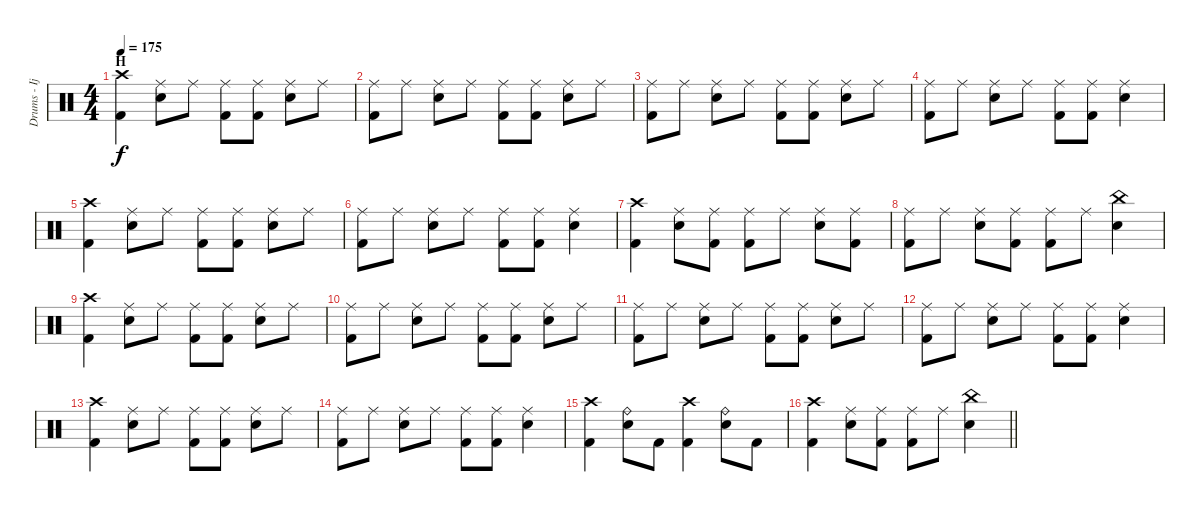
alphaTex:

\track ("Drums - Ijichi" "Drums - Ij") {instrument percussion}
\staff {score}
\articulation defaults
\ts (4 4)
\section ("" "H")
\tempo 175
\clef neutral
\ks c
("Crash high (hit)" "Kick (hit) 2").4{dy f} ("Ride (middle)" "Snare (hit) 2").8 "Ride (middle)".8 ("Ride (middle)" "Kick (hit) 2").8 ("Ride (middle)" "Kick (hit) 2").8 ("Ride (middle)" "Snare (hit) 2").8 "Ride (middle)".8 |
("Ride (middle)" "Kick (hit) 2").8 "Ride (middle)".8 ("Ride (middle)" "Snare (hit) 2").8 "Ride (middle)".8 ("Ride (middle)" "Kick (hit) 2").8 ("Ride (middle)" "Kick (hit) 2").8 ("Ride (middle)" "Snare (hit) 2").8 "Ride (middle)".8 |
("Ride (middle)" "Kick (hit) 2").8 "Ride (middle)".8 ("Ride (middle)" "Snare (hit) 2").8 "Ride (middle)".8 ("Ride (middle)" "Kick (hit) 2").8 ("Ride (middle)" "Kick (hit) 2").8 ("Ride (middle)" "Snare (hit) 2").8 "Ride (middle)".8 |
("Ride (middle)" "Kick (hit) 2").8 "Ride (middle)".8 ("Ride (middle)" "Snare (hit) 2").8 "Ride (middle)".8 ("Ride (middle)" "Kick (hit) 2").8 ("Ride (middle)" "Kick (hit) 2").8 ("Ride (middle)" "Snare (hit) 2").4 |
("Crash high (hit)" "Kick (hit) 2").4 ("Ride (middle)" "Snare (hit) 2").8 "Ride (middle)".8 ("Ride (middle)" "Kick (hit) 2").8 ("Ride (middle)" "Kick (hit) 2").8 ("Ride (middle)" "Snare (hit) 2").8 "Ride (middle)".8 |
("Ride (middle)" "Kick (hit) 2").8 "Ride (middle)".8 ("Ride (middle)" "Snare (hit) 2").8 "Ride (middle)".8 ("Ride (middle)" "Kick (hit) 2").8 ("Ride (middle)" "Kick (hit) 2").8 ("Ride (middle)" "Snare (hit) 2").4 |
("Crash high (hit)" "Kick (hit) 2").4 ("Ride (middle)" "Snare (hit) 2").8 ("Ride (middle)" "Kick (hit) 2").8 ("Ride (middle)" "Kick (hit) 2").8 "Ride (middle)".8 ("Ride (middle)" "Snare (hit) 2").8 ("Ride (middle)" "Kick (hit) 2").8 |
("Ride (middle)" "Kick (hit) 2").8 "Ride (middle)".8 ("Ride (middle)" "Snare (hit) 2").8 ("Ride (middle)" "Kick (hit) 2").8 ("Ride (middle)" "Kick (hit) 2").8 "Ride (middle)".8 ("China (hit)" "Snare (hit) 2").4 |
("Crash high (hit)" "Kick (hit) 2").4 ("Ride (middle)" "Snare (hit) 2").8 "Ride (middle)".8 ("Ride (middle)" "Kick (hit) 2").8 ("Ride (middle)" "Kick (hit) 2").8 ("Ride (middle)" "Snare (hit) 2").8 "Ride (middle)".8 |
("Ride (middle)" "Kick (hit) 2").8 "Ride (middle)".8 ("Ride (middle)" "Snare (hit) 2").8 "Ride (middle)".8 ("Ride (middle)" "Kick (hit) 2").8 ("Ride (middle)" "Kick (hit) 2").8 ("Ride (middle)" "Snare (hit) 2").8 "Ride (middle)".8 |
("Ride (middle)" "Kick (hit) 2").8 "Ride (middle)".8 ("Ride (middle)" "Snare (hit) 2").8 "Ride (middle)".8 ("Ride (middle)" "Kick (hit) 2").8 ("Ride (middle)" "Kick (hit) 2").8 ("Ride (middle)" "Snare (hit) 2").8 "Ride (middle)".8 |
("Ride (middle)" "Kick (hit) 2").8 "Ride (middle)".8 ("Ride (middle)" "Snare (hit) 2").8 "Ride (middle)".8 ("Ride (middle)" "Kick (hit) 2").8 ("Ride (middle)" "Kick (hit) 2").8 ("Ride (middle)" "Snare (hit) 2").4 |
("Crash high (hit)" "Kick (hit) 2").4 ("Ride (middle)" "Snare (hit) 2").8 "Ride (middle)".8 ("Ride (middle)" "Kick (hit) 2").8 ("Ride (middle)" "Kick (hit) 2").8 ("Ride (middle)" "Snare (hit) 2").8 "Ride (middle)".8 |
("Ride (middle)" "Kick (hit) 2").8 "Ride (middle)".8 ("Ride (middle)" "Snare (hit) 2").8 "Ride (middle)".8 ("Ride (middle)" "Kick (hit) 2").8 ("Ride (middle)" "Kick (hit) 2").8 ("Ride (middle)" "Snare (hit) 2").4 |
("Crash high (hit)" "Kick (hit) 2").4 ("Ride (bell)" "Snare (hit) 2").8 "Kick (hit) 2".8 ("Crash high (hit)" "Kick (hit) 2").4 ("Ride (bell)" "Snare (hit) 2").8 "Kick (hit) 2".8 |
\barLineRight lightlight
("Crash high (hit)" "Kick (hit) 2").4 ("Ride (middle)" "Snare (hit) 2").8 ("Ride (middle)" "Kick (hit) 2").8 ("Ride (middle)" "Kick (hit) 2").8 "Ride (middle)".8 ("China (hit)" "Snare (hit) 2").4
